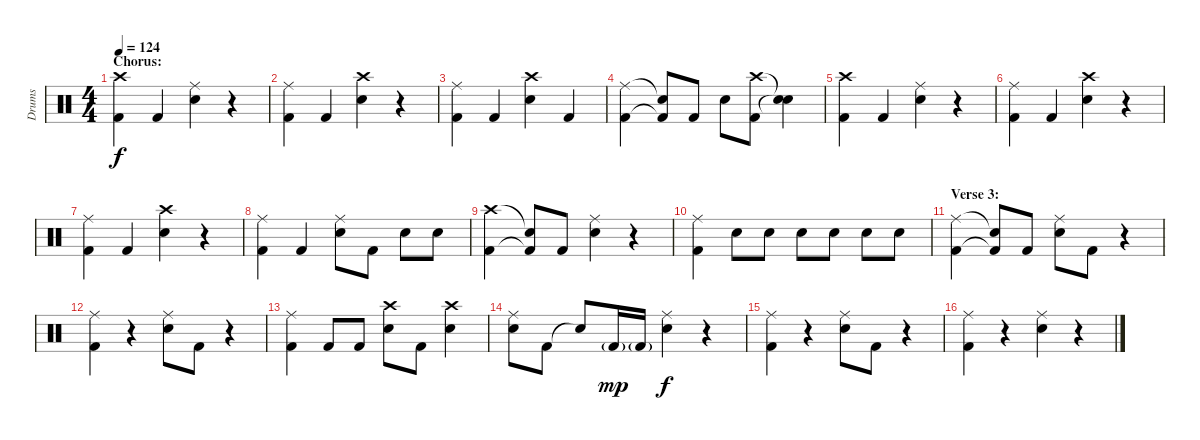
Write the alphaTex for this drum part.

\track ("Drums" "Drums") {instrument percussion}
\staff {score}
\articulation defaults
\ts (4 4)
\section ("" "Chorus:")
\tempo 124
\clef neutral
\ks c
("Crash high (hit)" "Kick (hit) 2").4{dy f} "Kick (hit) 2".4 ("Ride (middle)" "Electric Snare (hit)").4 r.4 |
("Ride (middle)" "Kick (hit) 2").4 "Kick (hit) 2".4 ("Crash high (hit)" "Electric Snare (hit)").4 r.4 |
("Ride (middle)" "Kick (hit) 2").4 "Kick (hit) 2".4 ("Crash high (hit)" "Electric Snare (hit)").4 "Kick (hit) 2".4 |
("Ride (middle)" "Kick (hit) 2").4 ("Snare (hit)"{t} "Kick (hit) 2"{t}).8 "Kick (hit) 2".8 "Electric Snare (hit)".8 ("Crash high (hit)" "Kick (hit) 2").8 ("Snare (hit)"{t} "Snare (hit)"{t}).4 |
("Crash high (hit)" "Kick (hit) 2").4 "Kick (hit) 2".4 ("Ride (middle)" "Electric Snare (hit)").4 r.4 |
("Ride (middle)" "Kick (hit) 2").4 "Kick (hit) 2".4 ("Crash high (hit)" "Electric Snare (hit)").4 r.4 |
("Ride (middle)" "Kick (hit) 2").4 "Kick (hit) 2".4 ("Crash high (hit)" "Electric Snare (hit)").4 r.4 |
("Ride (middle)" "Kick (hit) 2").4 "Kick (hit) 2".4 ("Ride (middle)" "Electric Snare (hit)").8 "Kick (hit) 2".8 "Electric Snare (hit)".8 "Electric Snare (hit)".8 |
("Crash high (hit)" "Kick (hit) 2").4 ("Snare (hit)"{t} "Kick (hit) 2"{t}).8 "Kick (hit) 2".8 ("Ride (middle)" "Electric Snare (hit)").4 r.4 |
("Ride (middle)" "Kick (hit) 2").4 "Electric Snare (hit)".8 "Electric Snare (hit)".8 "Electric Snare (hit)".8 "Electric Snare (hit)".8 "Electric Snare (hit)".8 "Electric Snare (hit)".8 |
\section ("" "Verse 3:")
("Ride (middle)" "Kick (hit) 2").4 ("Snare (hit)"{t} "Kick (hit) 2"{t}).8 "Kick (hit) 2".8 ("Ride (middle)" "Electric Snare (hit)").8 "Kick (hit) 2".8 r.4 |
("Ride (middle)" "Kick (hit) 2").4 r.4 ("Ride (middle)" "Electric Snare (hit)").8 "Kick (hit) 2".8 r.4 |
("Ride (middle)" "Kick (hit) 2").4 "Kick (hit) 2".8 "Kick (hit) 2".8 ("Crash high (hit)" "Electric Snare (hit)").8 "Kick (hit) 2".8 ("Crash high (hit)" "Electric Snare (hit)").4 |
("Ride (middle)" "Electric Snare (hit)").8 "Kick (hit) 2".8 "Snare (hit)"{t}.8 "Kick (hit) 2"{g}.16{dy mp} "Kick (hit) 2"{g}.16 ("Ride (middle)" "Electric Snare (hit)").4{dy f} r.4 |
("Ride (middle)" "Kick (hit) 2").4 r.4 ("Ride (middle)" "Electric Snare (hit)").8 "Kick (hit) 2".8 r.4 |
("Ride (middle)" "Kick (hit) 2").4 r.4 ("Ride (middle)" "Electric Snare (hit)").4 r.4
